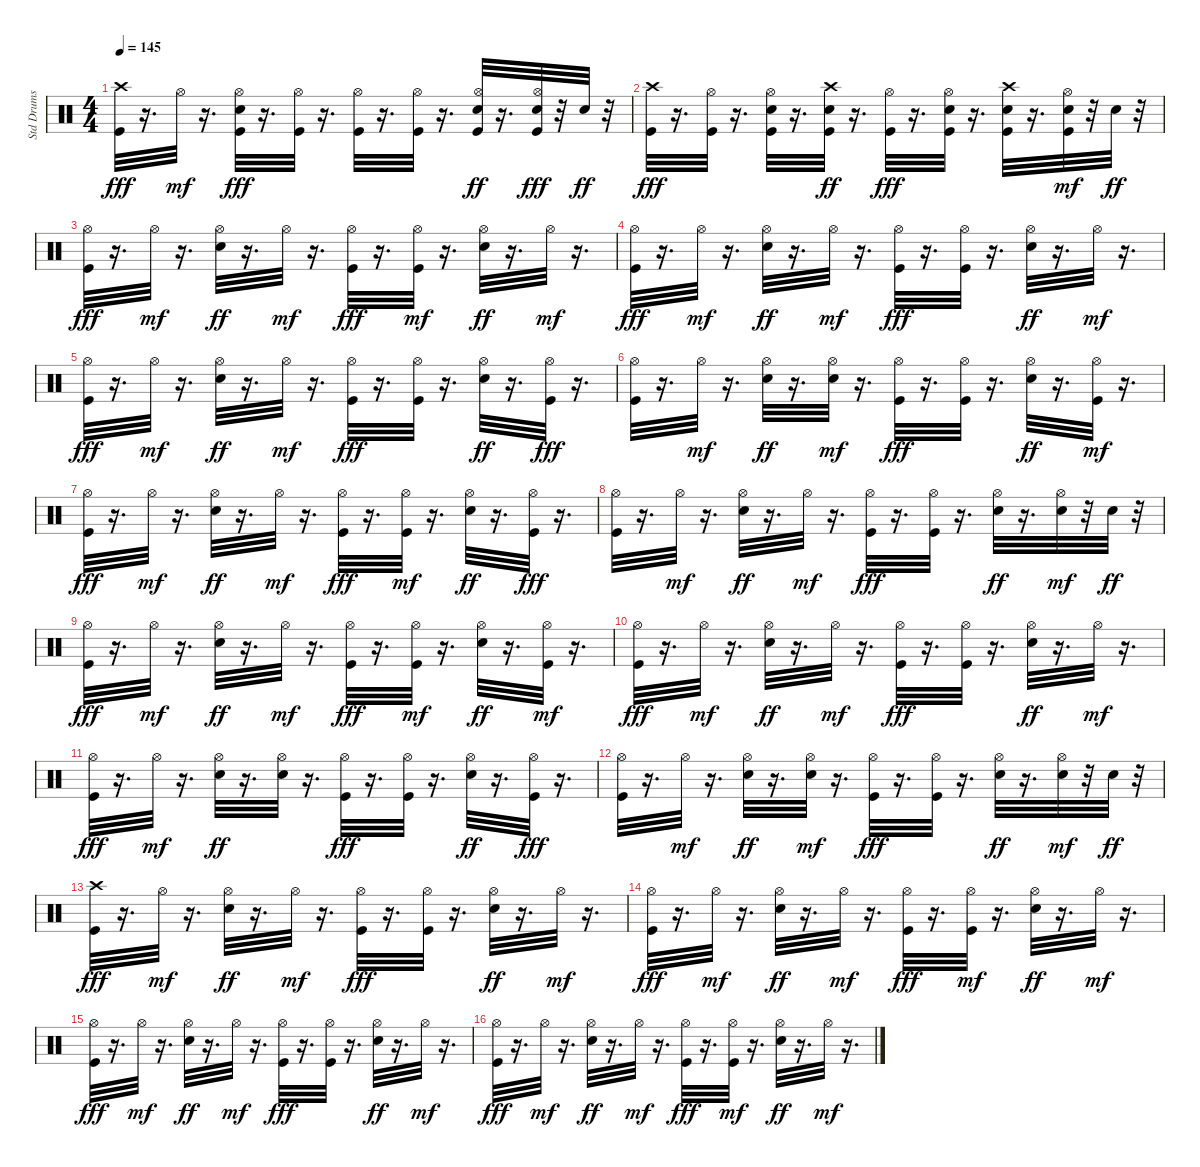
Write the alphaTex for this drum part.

\track ("Std Drums" "Std Drums") {instrument percussion}
\staff {score}
\articulation defaults
\ts (4 4)
\tempo 145
\clef neutral
\ks c
("Crash high (hit)" "Kick (hit)").32{dy fff} r.16{d} "Hi-Hat (open)".32{dy mf} r.16{d} ("Hi-Hat (open)" "Snare (hit) 2" "Kick (hit)").32{dy fff} r.16{d} ("Hi-Hat (open)" "Kick (hit)").32 r.16{d} ("Kick (hit)" "Hi-Hat (open)").32 r.16{d} ("Hi-Hat (open)" "Kick (hit)").32 r.16{d} ("Kick (hit)" "Hi-Hat (open)" "Snare (hit) 2").32{dy ff} r.16{d} ("Hi-Hat (open)" "Snare (hit) 2" "Kick (hit)").32{dy fff} r.32 "Snare (hit) 2".32{dy ff} r.32 |
("Crash high (hit)" "Kick (hit)").32{dy fff} r.16{d} ("Hi-Hat (open)" "Kick (hit)").32 r.16{d} ("Hi-Hat (open)" "Snare (hit) 2" "Kick (hit)").32 r.16{d} ("Crash high (hit)" "Kick (hit)" "Snare (hit) 2").32{dy ff} r.16{d} ("Hi-Hat (open)" "Kick (hit)").32{dy fff} r.16{d} ("Hi-Hat (open)" "Snare (hit) 2" "Kick (hit)").32 r.16{d} ("Snare (hit) 2" "Crash high (hit)" "Kick (hit)").32 r.16{d} ("Snare (hit) 2" "Kick (hit)" "Hi-Hat (open)").32{dy mf} r.32 "Snare (hit) 2".32{dy ff} r.32 |
("Kick (hit)" "Hi-Hat (open)").32{dy fff} r.16{d} "Hi-Hat (open)".32{dy mf} r.16{d} ("Snare (hit) 2" "Hi-Hat (open)").32{dy ff} r.16{d} "Hi-Hat (open)".32{dy mf} r.16{d} ("Hi-Hat (open)" "Kick (hit)").32{dy fff} r.16{d} ("Kick (hit)" "Hi-Hat (open)").32{dy mf} r.16{d} ("Snare (hit) 2" "Hi-Hat (open)").32{dy ff} r.16{d} "Hi-Hat (open)".32{dy mf} r.16{d} |
("Hi-Hat (open)" "Kick (hit)").32{dy fff} r.16{d} "Hi-Hat (open)".32{dy mf} r.16{d} ("Hi-Hat (open)" "Snare (hit) 2").32{dy ff} r.16{d} "Hi-Hat (open)".32{dy mf} r.16{d} ("Hi-Hat (open)" "Kick (hit)").32{dy fff} r.16{d} ("Hi-Hat (open)" "Kick (hit)").32 r.16{d} ("Snare (hit) 2" "Hi-Hat (open)").32{dy ff} r.16{d} "Hi-Hat (open)".32{dy mf} r.16{d} |
("Hi-Hat (open)" "Kick (hit)").32{dy fff} r.16{d} "Hi-Hat (open)".32{dy mf} r.16{d} ("Snare (hit) 2" "Hi-Hat (open)").32{dy ff} r.16{d} "Hi-Hat (open)".32{dy mf} r.16{d} ("Hi-Hat (open)" "Kick (hit)").32{dy fff} r.16{d} ("Hi-Hat (open)" "Kick (hit)").32 r.16{d} ("Hi-Hat (open)" "Snare (hit) 2").32{dy ff} r.16{d} ("Hi-Hat (open)" "Kick (hit)").32{dy fff} r.16{d} |
("Hi-Hat (open)" "Kick (hit)").32 r.16{d} "Hi-Hat (open)".32{dy mf} r.16{d} ("Snare (hit) 2" "Hi-Hat (open)").32{dy ff} r.16{d} ("Snare (hit) 2" "Hi-Hat (open)").32{dy mf} r.16{d} ("Hi-Hat (open)" "Kick (hit)").32{dy fff} r.16{d} ("Hi-Hat (open)" "Kick (hit)").32 r.16{d} ("Hi-Hat (open)" "Snare (hit) 2").32{dy ff} r.16{d} ("Kick (hit)" "Hi-Hat (open)").32{dy mf} r.16{d} |
("Hi-Hat (open)" "Kick (hit)").32{dy fff} r.16{d} "Hi-Hat (open)".32{dy mf} r.16{d} ("Snare (hit) 2" "Hi-Hat (open)").32{dy ff} r.16{d} "Hi-Hat (open)".32{dy mf} r.16{d} ("Kick (hit)" "Hi-Hat (open)").32{dy fff} r.16{d} ("Kick (hit)" "Hi-Hat (open)").32{dy mf} r.16{d} ("Hi-Hat (open)" "Snare (hit) 2").32{dy ff} r.16{d} ("Hi-Hat (open)" "Kick (hit)").32{dy fff} r.16{d} |
("Kick (hit)" "Hi-Hat (open)").32 r.16{d} "Hi-Hat (open)".32{dy mf} r.16{d} ("Hi-Hat (open)" "Snare (hit) 2").32{dy ff} r.16{d} "Hi-Hat (open)".32{dy mf} r.16{d} ("Kick (hit)" "Hi-Hat (open)").32{dy fff} r.16{d} ("Hi-Hat (open)" "Kick (hit)").32 r.16{d} ("Hi-Hat (open)" "Snare (hit) 2").32{dy ff} r.16{d} ("Snare (hit) 2" "Hi-Hat (open)").32{dy mf} r.32 "Snare (hit) 2".32{dy ff} r.32 |
("Kick (hit)" "Hi-Hat (open)").32{dy fff} r.16{d} "Hi-Hat (open)".32{dy mf} r.16{d} ("Hi-Hat (open)" "Snare (hit) 2").32{dy ff} r.16{d} "Hi-Hat (open)".32{dy mf} r.16{d} ("Kick (hit)" "Hi-Hat (open)").32{dy fff} r.16{d} ("Kick (hit)" "Hi-Hat (open)").32{dy mf} r.16{d} ("Hi-Hat (open)" "Snare (hit) 2").32{dy ff} r.16{d} ("Kick (hit)" "Hi-Hat (open)").32{dy mf} r.16{d} |
("Hi-Hat (open)" "Kick (hit)").32{dy fff} r.16{d} "Hi-Hat (open)".32{dy mf} r.16{d} ("Hi-Hat (open)" "Snare (hit) 2").32{dy ff} r.16{d} "Hi-Hat (open)".32{dy mf} r.16{d} ("Hi-Hat (open)" "Kick (hit)").32{dy fff} r.16{d} ("Hi-Hat (open)" "Kick (hit)").32 r.16{d} ("Hi-Hat (open)" "Snare (hit) 2").32{dy ff} r.16{d} "Hi-Hat (open)".32{dy mf} r.16{d} |
("Hi-Hat (open)" "Kick (hit)").32{dy fff} r.16{d} "Hi-Hat (open)".32{dy mf} r.16{d} ("Hi-Hat (open)" "Snare (hit) 2").32{dy ff} r.16{d} ("Hi-Hat (open)" "Snare (hit) 2").32 r.16{d} ("Kick (hit)" "Hi-Hat (open)").32{dy fff} r.16{d} ("Hi-Hat (open)" "Kick (hit)").32 r.16{d} ("Snare (hit) 2" "Hi-Hat (open)").32{dy ff} r.16{d} ("Hi-Hat (open)" "Kick (hit)").32{dy fff} r.16{d} |
("Kick (hit)" "Hi-Hat (open)").32 r.16{d} "Hi-Hat (open)".32{dy mf} r.16{d} ("Hi-Hat (open)" "Snare (hit) 2").32{dy ff} r.16{d} ("Snare (hit) 2" "Hi-Hat (open)").32{dy mf} r.16{d} ("Hi-Hat (open)" "Kick (hit)").32{dy fff} r.16{d} ("Hi-Hat (open)" "Kick (hit)").32 r.16{d} ("Snare (hit) 2" "Hi-Hat (open)").32{dy ff} r.16{d} ("Snare (hit) 2" "Hi-Hat (open)").32{dy mf} r.32 "Snare (hit) 2".32{dy ff} r.32 |
("Crash high (hit)" "Kick (hit)").32{dy fff} r.16{d} "Hi-Hat (open)".32{dy mf} r.16{d} ("Snare (hit) 2" "Hi-Hat (open)").32{dy ff} r.16{d} "Hi-Hat (open)".32{dy mf} r.16{d} ("Kick (hit)" "Hi-Hat (open)").32{dy fff} r.16{d} ("Hi-Hat (open)" "Kick (hit)").32 r.16{d} ("Hi-Hat (open)" "Snare (hit) 2").32{dy ff} r.16{d} "Hi-Hat (open)".32{dy mf} r.16{d} |
("Kick (hit)" "Hi-Hat (open)").32{dy fff} r.16{d} "Hi-Hat (open)".32{dy mf} r.16{d} ("Hi-Hat (open)" "Snare (hit) 2").32{dy ff} r.16{d} "Hi-Hat (open)".32{dy mf} r.16{d} ("Hi-Hat (open)" "Kick (hit)").32{dy fff} r.16{d} ("Kick (hit)" "Hi-Hat (open)").32{dy mf} r.16{d} ("Snare (hit) 2" "Hi-Hat (open)").32{dy ff} r.16{d} "Hi-Hat (open)".32{dy mf} r.16{d} |
("Kick (hit)" "Hi-Hat (open)").32{dy fff} r.16{d} "Hi-Hat (open)".32{dy mf} r.16{d} ("Hi-Hat (open)" "Snare (hit) 2").32{dy ff} r.16{d} "Hi-Hat (open)".32{dy mf} r.16{d} ("Hi-Hat (open)" "Kick (hit)").32{dy fff} r.16{d} ("Hi-Hat (open)" "Kick (hit)").32 r.16{d} ("Hi-Hat (open)" "Snare (hit) 2").32{dy ff} r.16{d} "Hi-Hat (open)".32{dy mf} r.16{d} |
("Hi-Hat (open)" "Kick (hit)").32{dy fff} r.16{d} "Hi-Hat (open)".32{dy mf} r.16{d} ("Hi-Hat (open)" "Snare (hit) 2").32{dy ff} r.16{d} "Hi-Hat (open)".32{dy mf} r.16{d} ("Hi-Hat (open)" "Kick (hit)").32{dy fff} r.16{d} ("Kick (hit)" "Hi-Hat (open)").32{dy mf} r.16{d} ("Hi-Hat (open)" "Snare (hit) 2").32{dy ff} r.16{d} "Hi-Hat (open)".32{dy mf} r.16{d}
